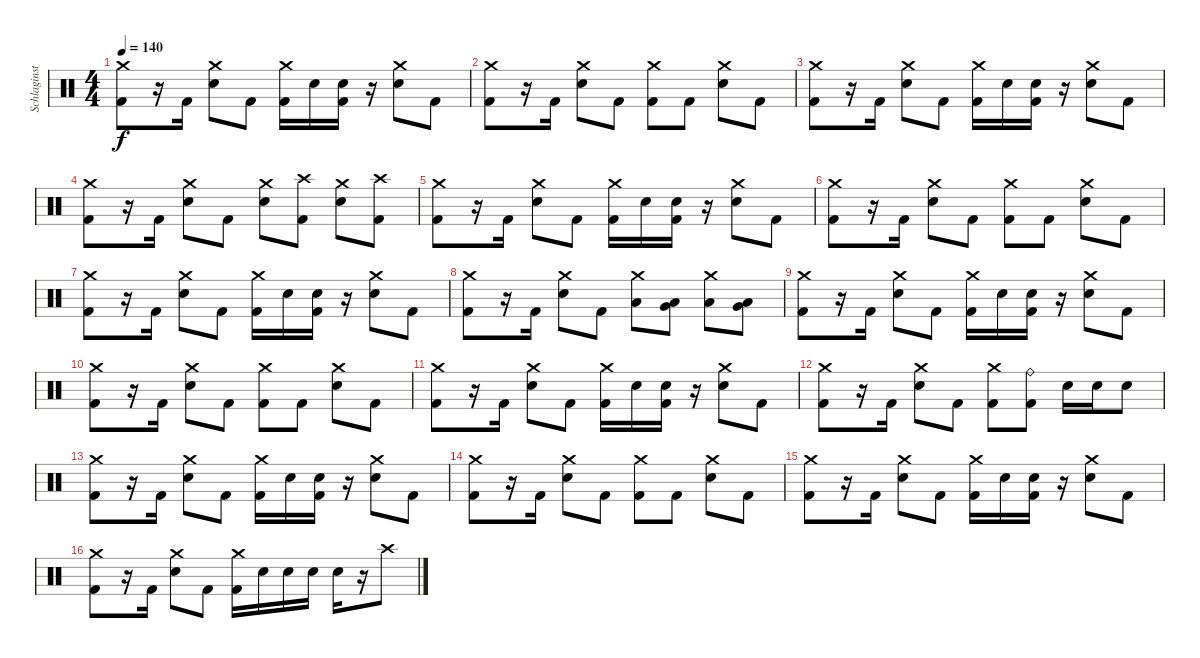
\track ("Schlaginstrumente - Auswahl" "Schlaginst") {instrument percussion}
\staff {score}
\articulation defaults
\ts (4 4)
\tempo 140
\clef neutral
\ks c
("Crash medium (hit)" "Kick (hit) 2").8{dy f} r.16 "Kick (hit) 2".16 ("Crash medium (hit)" "Snare (hit) 2").8 "Kick (hit) 2".8 ("Crash medium (hit)" "Kick (hit) 2").16 "Snare (hit) 2".16 ("Snare (hit) 2" "Kick (hit) 2").16 r.16 ("Crash medium (hit)" "Snare (hit) 2").8 "Kick (hit) 2".8 |
("Crash medium (hit)" "Kick (hit) 2").8 r.16 "Kick (hit) 2".16 ("Crash medium (hit)" "Snare (hit) 2").8 "Kick (hit) 2".8 ("Crash medium (hit)" "Kick (hit) 2").8 "Kick (hit) 2".8 ("Crash medium (hit)" "Snare (hit) 2").8 "Kick (hit) 2".8 |
("Crash medium (hit)" "Kick (hit) 2").8 r.16 "Kick (hit) 2".16 ("Crash medium (hit)" "Snare (hit) 2").8 "Kick (hit) 2".8 ("Crash medium (hit)" "Kick (hit) 2").16 "Snare (hit) 2".16 ("Snare (hit) 2" "Kick (hit) 2").16 r.16 ("Crash medium (hit)" "Snare (hit) 2").8 "Kick (hit) 2".8 |
("Crash medium (hit)" "Kick (hit) 2").8 r.16 "Kick (hit) 2".16 ("Crash medium (hit)" "Snare (hit) 2").8 "Kick (hit) 2".8 ("Crash medium (hit)" "Snare (hit) 2").8 ("Crash high (hit)" "Kick (hit) 2").8 ("Crash medium (hit)" "Snare (hit) 2").8 ("Crash high (hit)" "Kick (hit) 2").8 |
("Crash medium (hit)" "Kick (hit) 2").8 r.16 "Kick (hit) 2".16 ("Crash medium (hit)" "Snare (hit) 2").8 "Kick (hit) 2".8 ("Crash medium (hit)" "Kick (hit) 2").16 "Snare (hit) 2".16 ("Snare (hit) 2" "Kick (hit) 2").16 r.16 ("Crash medium (hit)" "Snare (hit) 2").8 "Kick (hit) 2".8 |
("Crash medium (hit)" "Kick (hit) 2").8 r.16 "Kick (hit) 2".16 ("Crash medium (hit)" "Snare (hit) 2").8 "Kick (hit) 2".8 ("Crash medium (hit)" "Kick (hit) 2").8 "Kick (hit) 2".8 ("Crash medium (hit)" "Snare (hit) 2").8 "Kick (hit) 2".8 |
("Crash medium (hit)" "Kick (hit) 2").8 r.16 "Kick (hit) 2".16 ("Crash medium (hit)" "Snare (hit) 2").8 "Kick (hit) 2".8 ("Crash medium (hit)" "Kick (hit) 2").16 "Snare (hit) 2".16 ("Snare (hit) 2" "Kick (hit) 2").16 r.16 ("Crash medium (hit)" "Snare (hit) 2").8 "Kick (hit) 2".8 |
("Crash medium (hit)" "Kick (hit) 2").8 r.16 "Kick (hit) 2".16 ("Crash medium (hit)" "Snare (hit) 2").8 "Kick (hit) 2".8 ("Crash medium (hit)" "Low Tom (hit)").8 ("Very Low Tom (hit)" "Low Floor Tom (hit)").8 ("Crash medium (hit)" "Low Tom (hit)").8 ("Very Low Tom (hit)" "Low Floor Tom (hit)").8 |
("Crash medium (hit)" "Kick (hit) 2").8 r.16 "Kick (hit) 2".16 ("Crash medium (hit)" "Snare (hit) 2").8 "Kick (hit) 2".8 ("Crash medium (hit)" "Kick (hit) 2").16 "Snare (hit) 2".16 ("Snare (hit) 2" "Kick (hit) 2").16 r.16 ("Crash medium (hit)" "Snare (hit) 2").8 "Kick (hit) 2".8 |
("Crash medium (hit)" "Kick (hit) 2").8 r.16 "Kick (hit) 2".16 ("Crash medium (hit)" "Snare (hit) 2").8 "Kick (hit) 2".8 ("Crash medium (hit)" "Kick (hit) 2").8 "Kick (hit) 2".8 ("Crash medium (hit)" "Snare (hit) 2").8 "Kick (hit) 2".8 |
("Crash medium (hit)" "Kick (hit) 2").8 r.16 "Kick (hit) 2".16 ("Crash medium (hit)" "Snare (hit) 2").8 "Kick (hit) 2".8 ("Crash medium (hit)" "Kick (hit) 2").16 "Snare (hit) 2".16 ("Snare (hit) 2" "Kick (hit) 2").16 r.16 ("Crash medium (hit)" "Snare (hit) 2").8 "Kick (hit) 2".8 |
("Crash medium (hit)" "Kick (hit) 2").8 r.16 "Kick (hit) 2".16 ("Crash medium (hit)" "Snare (hit) 2").8 "Kick (hit) 2".8 ("Crash medium (hit)" "Kick (hit) 2").8 ("Ride (bell)" "Kick (hit) 2").8 "Snare (hit) 2".16 "Snare (hit) 2".16 "Snare (hit) 2".8 |
("Crash medium (hit)" "Kick (hit) 2").8 r.16 "Kick (hit) 2".16 ("Crash medium (hit)" "Snare (hit) 2").8 "Kick (hit) 2".8 ("Crash medium (hit)" "Kick (hit) 2").16 "Snare (hit) 2".16 ("Snare (hit) 2" "Kick (hit) 2").16 r.16 ("Crash medium (hit)" "Snare (hit) 2").8 "Kick (hit) 2".8 |
("Crash medium (hit)" "Kick (hit) 2").8 r.16 "Kick (hit) 2".16 ("Crash medium (hit)" "Snare (hit) 2").8 "Kick (hit) 2".8 ("Crash medium (hit)" "Kick (hit) 2").8 "Kick (hit) 2".8 ("Crash medium (hit)" "Snare (hit) 2").8 "Kick (hit) 2".8 |
("Crash medium (hit)" "Kick (hit) 2").8 r.16 "Kick (hit) 2".16 ("Crash medium (hit)" "Snare (hit) 2").8 "Kick (hit) 2".8 ("Crash medium (hit)" "Kick (hit) 2").16 "Snare (hit) 2".16 ("Snare (hit) 2" "Kick (hit) 2").16 r.16 ("Crash medium (hit)" "Snare (hit) 2").8 "Kick (hit) 2".8 |
("Crash medium (hit)" "Kick (hit) 2").8 r.16 "Kick (hit) 2".16 ("Crash medium (hit)" "Snare (hit) 2").8 "Kick (hit) 2".8 ("Crash medium (hit)" "Kick (hit) 2").16 "Snare (hit) 2".16 "Snare (hit) 2".16 "Snare (hit) 2".16 "Snare (hit) 2".16 r.16 "Crash high (hit)".8
